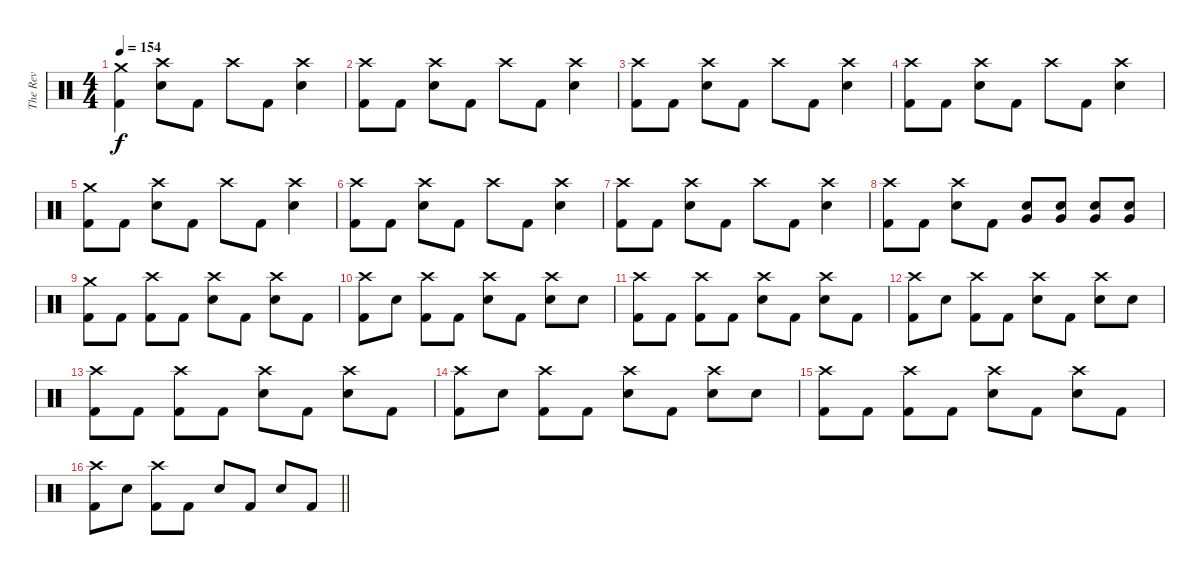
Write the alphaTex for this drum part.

\track ("The Rev" "The Rev") {instrument percussion}
\staff {score}
\articulation defaults
\ts (4 4)
\tempo 154
\clef neutral
\ks c
("Crash medium (hit)" "Kick (hit) 2").4{dy f} ("Crash high (hit)" "Snare (hit) 2").8 "Kick (hit) 2".8 "Crash high (hit)".8 "Kick (hit) 2".8 ("Crash high (hit)" "Snare (hit) 2").4 |
("Crash high (hit)" "Kick (hit) 2").8 "Kick (hit) 2".8 ("Crash high (hit)" "Snare (hit) 2").8 "Kick (hit) 2".8 "Crash high (hit)".8 "Kick (hit) 2".8 ("Crash high (hit)" "Snare (hit) 2").4 |
("Crash high (hit)" "Kick (hit) 2").8 "Kick (hit) 2".8 ("Crash high (hit)" "Snare (hit) 2").8 "Kick (hit) 2".8 "Crash high (hit)".8 "Kick (hit) 2".8 ("Crash high (hit)" "Snare (hit) 2").4 |
("Crash high (hit)" "Kick (hit) 2").8 "Kick (hit) 2".8 ("Crash high (hit)" "Snare (hit) 2").8 "Kick (hit) 2".8 "Crash high (hit)".8 "Kick (hit) 2".8 ("Crash high (hit)" "Snare (hit) 2").4 |
("Crash medium (hit)" "Kick (hit) 2").8 "Kick (hit) 2".8 ("Crash high (hit)" "Snare (hit) 2").8 "Kick (hit) 2".8 "Crash high (hit)".8 "Kick (hit) 2".8 ("Crash high (hit)" "Snare (hit) 2").4 |
("Crash high (hit)" "Kick (hit) 2").8 "Kick (hit) 2".8 ("Crash high (hit)" "Snare (hit) 2").8 "Kick (hit) 2".8 "Crash high (hit)".8 "Kick (hit) 2".8 ("Crash high (hit)" "Snare (hit) 2").4 |
("Crash high (hit)" "Kick (hit) 2").8 "Kick (hit) 2".8 ("Crash high (hit)" "Snare (hit) 2").8 "Kick (hit) 2".8 "Crash high (hit)".8 "Kick (hit) 2".8 ("Crash high (hit)" "Snare (hit) 2").4 |
("Crash high (hit)" "Kick (hit) 2").8 "Kick (hit) 2".8 ("Crash high (hit)" "Snare (hit) 2").8 "Kick (hit) 2".8 ("Snare (hit) 2" "Very Low Tom (hit)").8 ("Snare (hit) 2" "Very Low Tom (hit)").8 ("Snare (hit) 2" "Very Low Tom (hit)").8 ("Snare (hit) 2" "Very Low Tom (hit)").8 |
("Crash medium (hit)" "Kick (hit) 2").8 "Kick (hit) 2".8 ("Crash high (hit)" "Kick (hit) 2").8 "Kick (hit) 2".8 ("Crash high (hit)" "Snare (hit) 2").8 "Kick (hit) 2".8 ("Crash high (hit)" "Snare (hit) 2").8 "Kick (hit) 2".8 |
("Crash high (hit)" "Kick (hit) 2").8 "Snare (hit) 2".8 ("Crash high (hit)" "Kick (hit) 2").8 "Kick (hit) 2".8 ("Crash high (hit)" "Snare (hit) 2").8 "Kick (hit) 2".8 ("Crash high (hit)" "Snare (hit) 2").8 "Snare (hit) 2".8 |
("Crash high (hit)" "Kick (hit) 2").8 "Kick (hit) 2".8 ("Crash high (hit)" "Kick (hit) 2").8 "Kick (hit) 2".8 ("Crash high (hit)" "Snare (hit) 2").8 "Kick (hit) 2".8 ("Crash high (hit)" "Snare (hit) 2").8 "Kick (hit) 2".8 |
("Crash high (hit)" "Kick (hit) 2").8 "Snare (hit) 2".8 ("Crash high (hit)" "Kick (hit) 2").8 "Kick (hit) 2".8 ("Crash high (hit)" "Snare (hit) 2").8 "Kick (hit) 2".8 ("Crash high (hit)" "Snare (hit) 2").8 "Snare (hit) 2".8 |
("Crash high (hit)" "Kick (hit) 2").8 "Kick (hit) 2".8 ("Crash high (hit)" "Kick (hit) 2").8 "Kick (hit) 2".8 ("Crash high (hit)" "Snare (hit) 2").8 "Kick (hit) 2".8 ("Crash high (hit)" "Snare (hit) 2").8 "Kick (hit) 2".8 |
("Crash high (hit)" "Kick (hit) 2").8 "Snare (hit) 2".8 ("Crash high (hit)" "Kick (hit) 2").8 "Kick (hit) 2".8 ("Crash high (hit)" "Snare (hit) 2").8 "Kick (hit) 2".8 ("Crash high (hit)" "Snare (hit) 2").8 "Snare (hit) 2".8 |
("Crash high (hit)" "Kick (hit) 2").8 "Kick (hit) 2".8 ("Crash high (hit)" "Kick (hit) 2").8 "Kick (hit) 2".8 ("Crash high (hit)" "Snare (hit) 2").8 "Kick (hit) 2".8 ("Crash high (hit)" "Snare (hit) 2").8 "Kick (hit) 2".8 |
\barLineRight lightlight
("Crash high (hit)" "Kick (hit) 2").8 "Snare (hit) 2".8 ("Crash high (hit)" "Kick (hit) 2").8 "Kick (hit) 2".8 "Snare (hit) 2".8 "Kick (hit) 2".8 "Snare (hit) 2".8 "Kick (hit) 2".8
